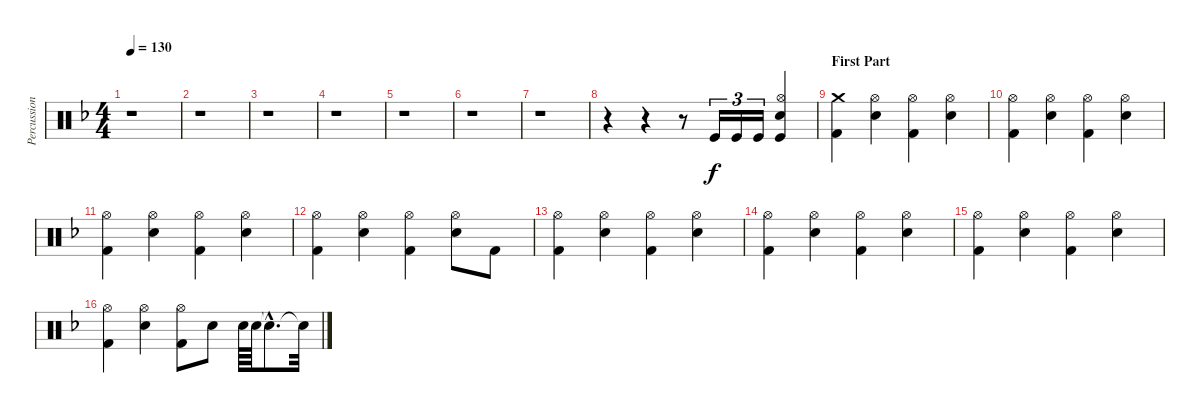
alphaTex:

\track ("Percussions" "Percussion") {instrument percussion}
\staff {score}
\articulation defaults
\ts (4 4)
\tempo 130
\clef neutral
\ks f
r.1{dy f} |
r.1 |
r.1 |
r.1 |
r.1 |
r.1 |
r.1 |
r.4 r.4 r.8 "Kick (hit)".16{tu (3 2)} "Kick (hit)".16{tu (3 2)} "Kick (hit)".16{tu (3 2)} ("Hi-Hat (open)" "Electric Snare (hit)" "Kick (hit)").4 |
\section ("" "First Part")
("Crash medium (hit)" "Kick (hit) 2").4 ("Hi-Hat (open)" "Electric Snare (hit)").4 ("Hi-Hat (open)" "Kick (hit) 2").4 ("Hi-Hat (open)" "Electric Snare (hit)").4 |
("Hi-Hat (open)" "Kick (hit) 2").4 ("Hi-Hat (open)" "Electric Snare (hit)").4 ("Hi-Hat (open)" "Kick (hit) 2").4 ("Hi-Hat (open)" "Electric Snare (hit)").4 |
("Hi-Hat (open)" "Kick (hit) 2").4 ("Hi-Hat (open)" "Electric Snare (hit)").4 ("Hi-Hat (open)" "Kick (hit) 2").4 ("Hi-Hat (open)" "Electric Snare (hit)").4 |
("Hi-Hat (open)" "Kick (hit) 2").4 ("Hi-Hat (open)" "Electric Snare (hit)").4 ("Hi-Hat (open)" "Kick (hit) 2").4 ("Hi-Hat (open)" "Electric Snare (hit)").8 "Kick (hit) 2".8 |
("Hi-Hat (open)" "Kick (hit) 2").4 ("Hi-Hat (open)" "Electric Snare (hit)").4 ("Hi-Hat (open)" "Kick (hit) 2").4 ("Hi-Hat (open)" "Electric Snare (hit)").4 |
("Hi-Hat (open)" "Kick (hit) 2").4 ("Hi-Hat (open)" "Electric Snare (hit)").4 ("Hi-Hat (open)" "Kick (hit) 2").4 ("Hi-Hat (open)" "Electric Snare (hit)").4 |
("Hi-Hat (open)" "Kick (hit) 2").4 ("Hi-Hat (open)" "Electric Snare (hit)").4 ("Hi-Hat (open)" "Kick (hit) 2").4 ("Hi-Hat (open)" "Electric Snare (hit)").4 |
("Hi-Hat (open)" "Kick (hit) 2").4 ("Hi-Hat (open)" "Electric Snare (hit)").4 ("Hi-Hat (open)" "Kick (hit) 2").8 "Electric Snare (hit)".8 "Electric Snare (hit)".64 "Electric Snare (hit)".64 "Snare (hit)"{hac t}.8{d} "Snare (hit)"{t}.32
